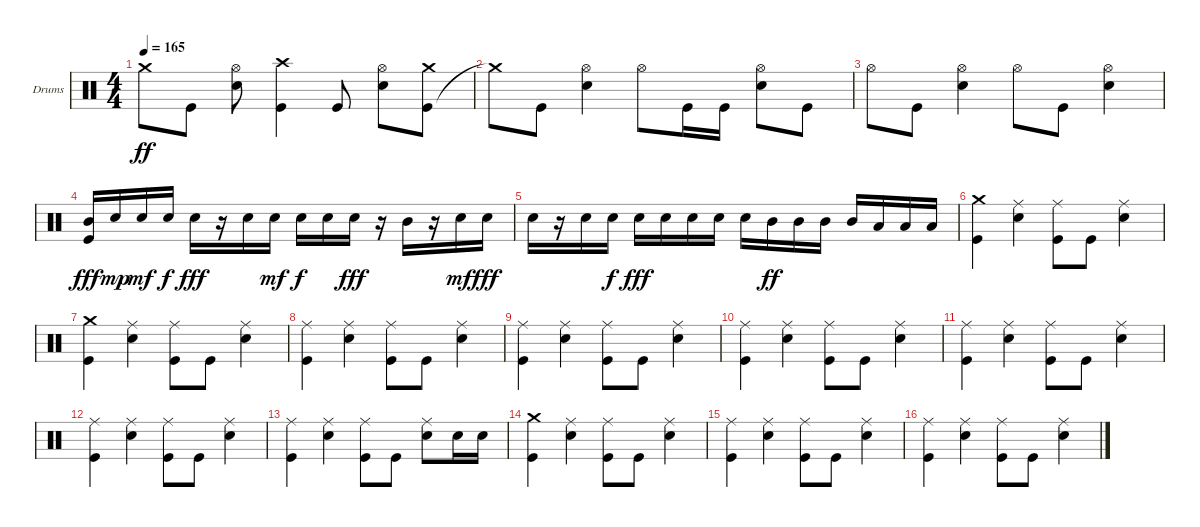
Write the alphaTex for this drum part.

\bracketExtendMode groupsimilarinstruments
\firstSystemTrackNameOrientation horizontal
\otherSystemsTrackNameOrientation horizontal
\track ("Drumkit" "Drums") {instrument percussion}
\staff {score}
\articulation defaults
\ts (4 4)
\tempo 165
\clef neutral
\ks c "Crash medium (hit)"{t}.8{dy ff} "Kick (hit)".8
("Hi-Hat (open)" "Snare (hit) 2").8 ("Kick (hit)" "Crash high (hit)").4 "Kick (hit)".8 ("Hi-Hat (open)" "Snare (hit) 2").8 ("Kick (hit)" "Crash medium (hit)").8 |
"Crash medium (hit)"{t}.8 "Kick (hit)".8 ("Hi-Hat (open)" "Snare (hit) 2").4 "Hi-Hat (open)".8 "Kick (hit)".16 "Kick (hit)".16 ("Hi-Hat (open)" "Snare (hit) 2").8 "Kick (hit)".8 |
"Hi-Hat (open)".8 "Kick (hit)".8 ("Snare (hit) 2" "Hi-Hat (open)").4 "Hi-Hat (open)".8 "Kick (hit)".8 ("Hi-Hat (open)" "Snare (hit) 2").4 |
("Mid Tom (hit)" "Kick (hit)").16{dy fff} "Snare (hit) 2".16{dy mp} "Snare (hit) 2".16{dy mf} "Snare (hit) 2".16{dy f} "Snare (hit) 2".16{dy fff} r.16 "Snare (hit) 2".16 "Snare (hit) 2".16{dy mf} "Snare (hit) 2".16{dy f} "Snare (hit) 2".16 "Snare (hit) 2".16{dy fff} r.16 "Mid Tom (hit)".16 r.16 "Snare (hit) 2".16{dy mf} "Snare (hit) 2".16{dy fff} |
"Snare (hit) 2".16 r.16 "Snare (hit) 2".16 "Snare (hit) 2".16{dy f} "Snare (hit) 2".16{dy fff} "Snare (hit) 2".16 "Snare (hit) 2".16 "Snare (hit) 2".16 "Snare (hit) 2".16 "Mid Tom (hit)".16{dy ff} "Mid Tom (hit)".16 "Mid Tom (hit)".16 "Mid Tom (hit)".16 "Low Tom (hit)".16 "Low Tom (hit)".16 "Low Tom (hit)".16 |
("Crash medium (hit)" "Kick (hit)").4 ("Ride (middle)" "Snare (hit) 2").4 ("Ride (middle)" "Kick (hit)").8 "Kick (hit)".8 ("Ride (middle)" "Snare (hit) 2").4 |
("Crash medium (hit)" "Kick (hit)").4 ("Ride (middle)" "Snare (hit) 2").4 ("Ride (middle)" "Kick (hit)").8 "Kick (hit)".8 ("Ride (middle)" "Snare (hit) 2").4 |
("Kick (hit)" "Ride (middle)").4 ("Snare (hit) 2" "Ride (middle)").4 ("Kick (hit)" "Ride (middle)").8 "Kick (hit)".8 ("Ride (middle)" "Snare (hit) 2").4 |
("Kick (hit)" "Ride (middle)").4 ("Snare (hit) 2" "Ride (middle)").4 ("Kick (hit)" "Ride (middle)").8 "Kick (hit)".8 ("Ride (middle)" "Snare (hit) 2").4 |
("Kick (hit)" "Ride (middle)").4 ("Snare (hit) 2" "Ride (middle)").4 ("Kick (hit)" "Ride (middle)").8 "Kick (hit)".8 ("Ride (middle)" "Snare (hit) 2").4 |
("Kick (hit)" "Ride (middle)").4 ("Snare (hit) 2" "Ride (middle)").4 ("Kick (hit)" "Ride (middle)").8 "Kick (hit)".8 ("Ride (middle)" "Snare (hit) 2").4 |
("Kick (hit)" "Ride (middle)").4 ("Snare (hit) 2" "Ride (middle)").4 ("Kick (hit)" "Ride (middle)").8 "Kick (hit)".8 ("Ride (middle)" "Snare (hit) 2").4 |
("Kick (hit)" "Ride (middle)").4 ("Snare (hit) 2" "Ride (middle)").4 ("Kick (hit)" "Ride (middle)").8 "Kick (hit)".8 ("Ride (middle)" "Snare (hit) 2").8 "Snare (hit) 2".16 "Snare (hit) 2".16 |
("Crash medium (hit)" "Kick (hit)").4 ("Ride (middle)" "Snare (hit) 2").4 ("Ride (middle)" "Kick (hit)").8 "Kick (hit)".8 ("Ride (middle)" "Snare (hit) 2").4 |
("Kick (hit)" "Ride (middle)").4 ("Ride (middle)" "Snare (hit) 2").4 ("Ride (middle)" "Kick (hit)").8 "Kick (hit)".8 ("Ride (middle)" "Snare (hit) 2").4 |
("Kick (hit)" "Ride (middle)").4 ("Snare (hit) 2" "Ride (middle)").4 ("Kick (hit)" "Ride (middle)").8 "Kick (hit)".8 ("Ride (middle)" "Snare (hit) 2").4
